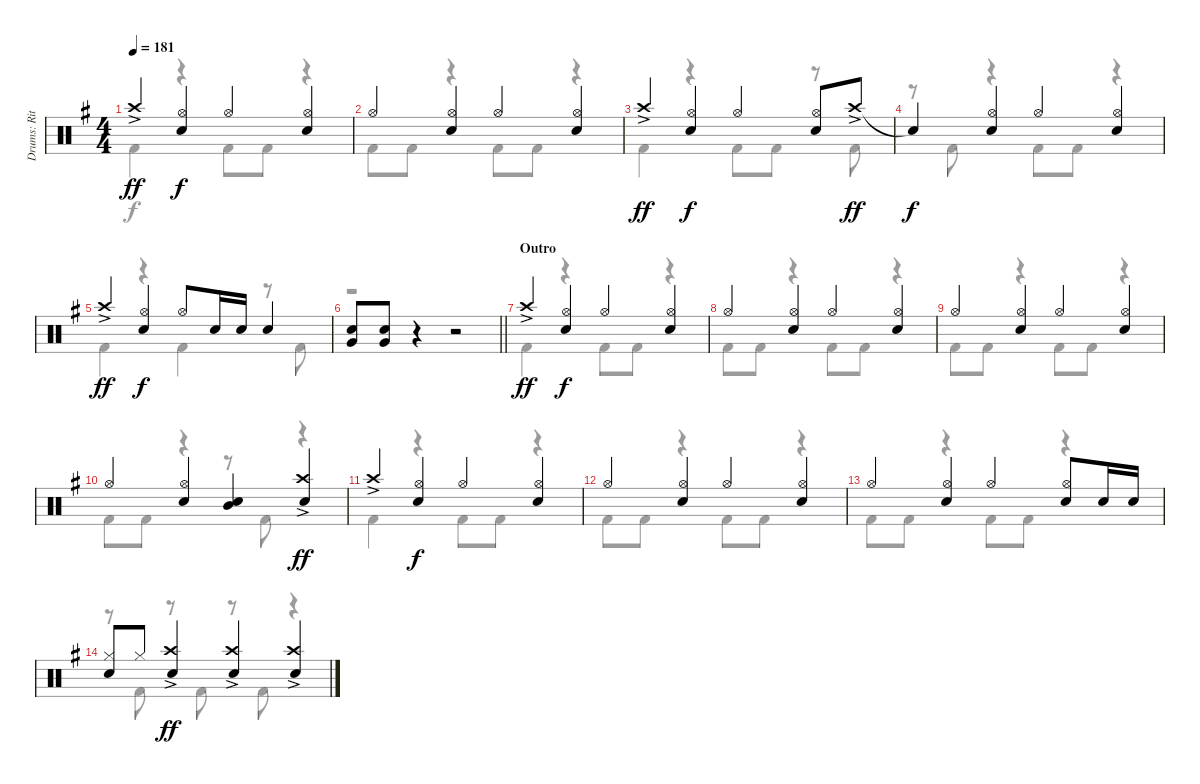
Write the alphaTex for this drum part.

\track ("Drums: Ritsu Tianaka" "Drums: Rit") {instrument percussion}
\staff {score}
\articulation defaults
\voice
\ts (4 4)
\tempo 181
\clef neutral
\ks g "Crash high (hit)"{ac}.4{dy ff}
("Hi-Hat (open)" "Snare (hit) 2").4{dy f} "Hi-Hat (open)".4 ("Hi-Hat (open)" "Snare (hit) 2").4 |
"Hi-Hat (open)".4 ("Hi-Hat (open)" "Snare (hit) 2").4 "Hi-Hat (open)".4 ("Hi-Hat (open)" "Snare (hit) 2").4 |
"Crash high (hit)"{ac}.4{dy ff} ("Hi-Hat (open)" "Snare (hit) 2").4{dy f} "Hi-Hat (open)".4 ("Hi-Hat (open)" "Snare (hit) 2").8 "Crash high (hit)"{ac}.8{dy ff} |
"Snare (hit)"{t}.4{dy f} ("Hi-Hat (open)" "Snare (hit) 2").4 "Hi-Hat (open)".4 ("Hi-Hat (open)" "Snare (hit) 2").4 |
"Crash high (hit)"{ac}.4{dy ff} ("Hi-Hat (open)" "Snare (hit) 2").4{dy f} "Hi-Hat (open)".8 "Snare (hit) 2".16 "Snare (hit) 2".16 "Snare (hit) 2".4 |
\barLineRight lightlight
("Snare (hit) 2" "Very Low Tom (hit)").8 ("Snare (hit) 2" "Very Low Tom (hit)").8 r.4 r.2 |
\section ("" "Outro")
"Crash high (hit)"{ac}.4{dy ff} ("Hi-Hat (open)" "Snare (hit) 2").4{dy f} "Hi-Hat (open)".4 ("Hi-Hat (open)" "Snare (hit) 2").4 |
"Hi-Hat (open)".4 ("Hi-Hat (open)" "Snare (hit) 2").4 "Hi-Hat (open)".4 ("Hi-Hat (open)" "Snare (hit) 2").4 |
"Hi-Hat (open)".4 ("Hi-Hat (open)" "Snare (hit) 2").4 "Hi-Hat (open)".4 ("Hi-Hat (open)" "Snare (hit) 2").4 |
"Hi-Hat (open)".4 ("Hi-Hat (open)" "Snare (hit) 2").4 ("Mid Tom (hit)" "Snare (hit) 2").4 ("Crash high (hit)"{ac} "Snare (hit) 2").4{dy ff} |
"Crash high (hit)"{ac}.4 ("Hi-Hat (open)" "Snare (hit) 2").4{dy f} "Hi-Hat (open)".4 ("Hi-Hat (open)" "Snare (hit) 2").4 |
"Hi-Hat (open)".4 ("Hi-Hat (open)" "Snare (hit) 2").4 "Hi-Hat (open)".4 ("Hi-Hat (open)" "Snare (hit) 2").4 |
"Hi-Hat (open)".4 ("Hi-Hat (open)" "Snare (hit) 2").4 "Hi-Hat (open)".4 ("Hi-Hat (open)" "Snare (hit) 2").8 "Snare (hit) 2".16 "Snare (hit) 2".16 |
("Hi-Hat (closed)" "Snare (hit) 2").8 "Hi-Hat (closed)".8 ("Crash high (hit)"{ac} "Snare (hit) 2").4{dy ff} ("Crash high (hit)"{ac} "Snare (hit) 2").4 ("Crash high (hit)"{ac} "Snare (hit) 2").4
\voice
\clef neutral
\ottava regular
\simile none
\ks g "Kick (hit) 2".4{dy f}
r.4 "Kick (hit) 2".8 "Kick (hit) 2".8 r.4 |
"Kick (hit) 2".8 "Kick (hit) 2".8 r.4 "Kick (hit) 2".8 "Kick (hit) 2".8 r.4 |
"Kick (hit) 2".4 r.4 "Kick (hit) 2".8 "Kick (hit) 2".8 r.8 "Kick (hit) 2".8 |
r.8 "Kick (hit) 2".8 r.4 "Kick (hit) 2".8 "Kick (hit) 2".8 r.4 |
"Kick (hit) 2".4 r.4 "Kick (hit) 2".4 r.8 "Kick (hit) 2".8 |
\barLineRight lightlight
r.1 |
"Kick (hit) 2".4 r.4 "Kick (hit) 2".8 "Kick (hit) 2".8 r.4 |
"Kick (hit) 2".8 "Kick (hit) 2".8 r.4 "Kick (hit) 2".8 "Kick (hit) 2".8 r.4 |
"Kick (hit) 2".8 "Kick (hit) 2".8 r.4 "Kick (hit) 2".8 "Kick (hit) 2".8 r.4 |
"Kick (hit) 2".8 "Kick (hit) 2".8 r.4 r.8 "Kick (hit) 2".8 r.4 |
"Kick (hit) 2".4 r.4 "Kick (hit) 2".8 "Kick (hit) 2".8 r.4 |
"Kick (hit) 2".8 "Kick (hit) 2".8 r.4 "Kick (hit) 2".8 "Kick (hit) 2".8 r.4 |
"Kick (hit) 2".8 "Kick (hit) 2".8 r.4 "Kick (hit) 2".8 "Kick (hit) 2".8 r.4 |
r.8 "Kick (hit) 2".8 r.8 "Kick (hit) 2".8 r.8 "Kick (hit) 2".8 r.4
